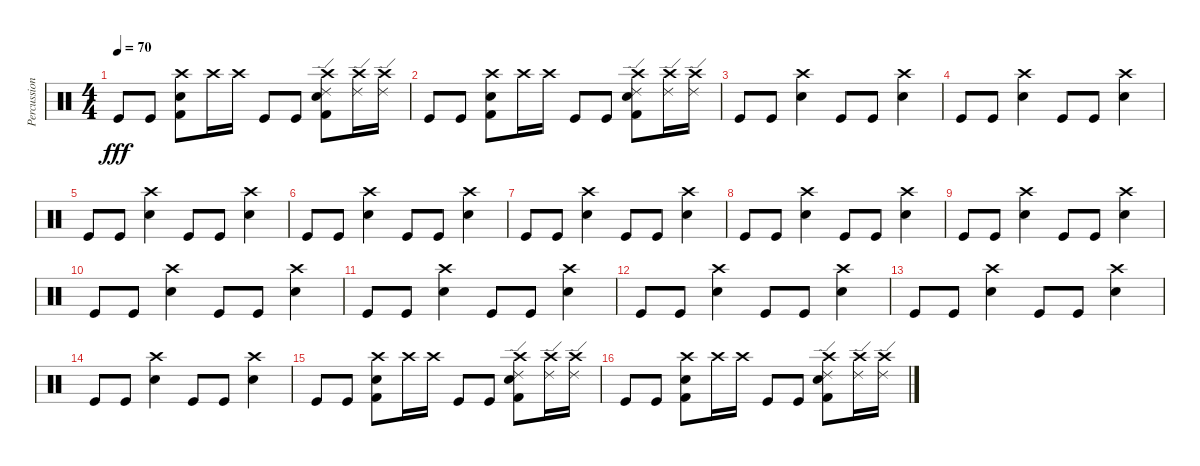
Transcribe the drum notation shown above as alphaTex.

\track ("Percussion" "Percussion") {instrument percussion}
\staff {score}
\articulation defaults
\ts (4 4)
\tempo 70
\clef neutral
\ks c "Kick (hit)".8{dy fff} "Kick (hit)".8
("Metronome (bell)" "Crash high (hit)" "Kick (hit) 2").8 "Crash high (hit)".16 "Crash high (hit)".16 "Kick (hit)".8 "Kick (hit)".8 ("Metronome (bell)" "Ride (edge) 2" "Kick (hit) 2" "Crash high (hit)").8 ("Ride (edge) 2" "Crash high (hit)").16 ("Ride (edge) 2" "Crash high (hit)").16 |
"Kick (hit)".8 "Kick (hit)".8 ("Metronome (bell)" "Crash high (hit)" "Kick (hit) 2").8 "Crash high (hit)".16 "Crash high (hit)".16 "Kick (hit)".8 "Kick (hit)".8 ("Metronome (bell)" "Ride (edge) 2" "Kick (hit) 2" "Crash high (hit)").8 ("Ride (edge) 2" "Crash high (hit)").16 ("Ride (edge) 2" "Crash high (hit)").16 |
"Kick (hit)".8 "Kick (hit)".8 ("Metronome (bell)" "Crash high (hit)").4 "Kick (hit)".8 "Kick (hit)".8 ("Metronome (bell)" "Crash high (hit)").4 |
"Kick (hit)".8 "Kick (hit)".8 ("Metronome (bell)" "Crash high (hit)").4 "Kick (hit)".8 "Kick (hit)".8 ("Metronome (bell)" "Crash high (hit)").4 |
"Kick (hit)".8 "Kick (hit)".8 ("Metronome (bell)" "Crash high (hit)").4 "Kick (hit)".8 "Kick (hit)".8 ("Metronome (bell)" "Crash high (hit)").4 |
"Kick (hit)".8 "Kick (hit)".8 ("Metronome (bell)" "Crash high (hit)").4 "Kick (hit)".8 "Kick (hit)".8 ("Metronome (bell)" "Crash high (hit)").4 |
"Kick (hit)".8 "Kick (hit)".8 ("Metronome (bell)" "Crash high (hit)").4 "Kick (hit)".8 "Kick (hit)".8 ("Metronome (bell)" "Crash high (hit)").4 |
"Kick (hit)".8 "Kick (hit)".8 ("Metronome (bell)" "Crash high (hit)").4 "Kick (hit)".8 "Kick (hit)".8 ("Metronome (bell)" "Crash high (hit)").4 |
"Kick (hit)".8 "Kick (hit)".8 ("Metronome (bell)" "Crash high (hit)").4 "Kick (hit)".8 "Kick (hit)".8 ("Metronome (bell)" "Crash high (hit)").4 |
"Kick (hit)".8 "Kick (hit)".8 ("Metronome (bell)" "Crash high (hit)").4 "Kick (hit)".8 "Kick (hit)".8 ("Metronome (bell)" "Crash high (hit)").4 |
"Kick (hit)".8 "Kick (hit)".8 ("Metronome (bell)" "Crash high (hit)").4 "Kick (hit)".8 "Kick (hit)".8 ("Metronome (bell)" "Crash high (hit)").4 |
"Kick (hit)".8 "Kick (hit)".8 ("Metronome (bell)" "Crash high (hit)").4 "Kick (hit)".8 "Kick (hit)".8 ("Metronome (bell)" "Crash high (hit)").4 |
"Kick (hit)".8 "Kick (hit)".8 ("Metronome (bell)" "Crash high (hit)").4 "Kick (hit)".8 "Kick (hit)".8 ("Metronome (bell)" "Crash high (hit)").4 |
"Kick (hit)".8 "Kick (hit)".8 ("Metronome (bell)" "Crash high (hit)").4 "Kick (hit)".8 "Kick (hit)".8 ("Metronome (bell)" "Crash high (hit)").4 |
"Kick (hit)".8 "Kick (hit)".8 ("Metronome (bell)" "Crash high (hit)" "Kick (hit) 2").8 "Crash high (hit)".16 "Crash high (hit)".16 "Kick (hit)".8 "Kick (hit)".8 ("Metronome (bell)" "Ride (edge) 2" "Kick (hit) 2" "Crash high (hit)").8 ("Ride (edge) 2" "Crash high (hit)").16 ("Ride (edge) 2" "Crash high (hit)").16 |
"Kick (hit)".8 "Kick (hit)".8 ("Metronome (bell)" "Crash high (hit)" "Kick (hit) 2").8 "Crash high (hit)".16 "Crash high (hit)".16 "Kick (hit)".8 "Kick (hit)".8 ("Metronome (bell)" "Ride (edge) 2" "Kick (hit) 2" "Crash high (hit)").8 ("Ride (edge) 2" "Crash high (hit)").16 ("Ride (edge) 2" "Crash high (hit)").16
